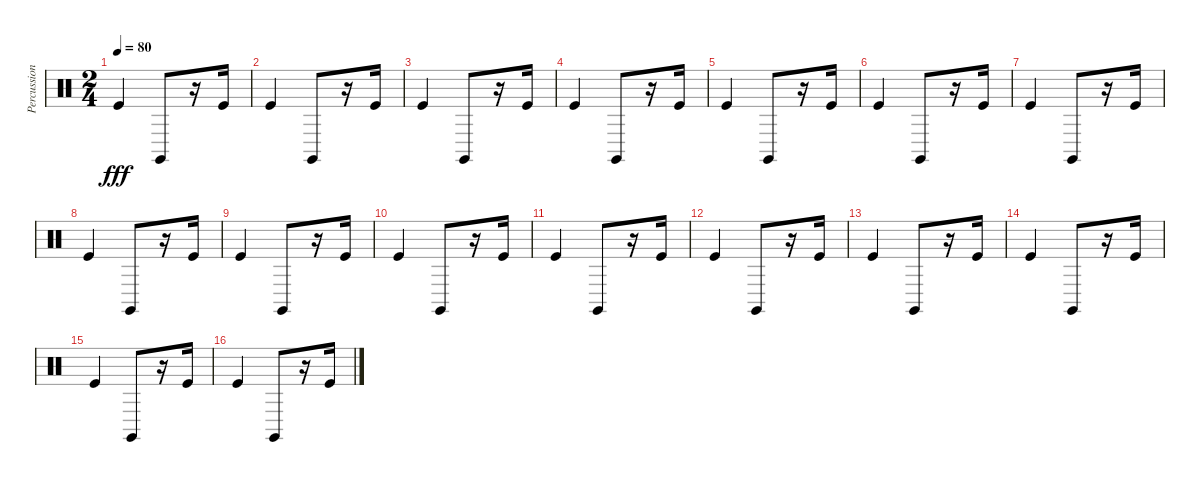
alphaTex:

\track ("Percussions" "Percussion") {instrument percussion}
\staff {score}
\articulation defaults
\ts (2 4)
\tempo 80
\clef neutral
\ks c "Kick (hit)".4{dy fff} "Claves (hit)".8
r.16 "Kick (hit)".16 |
"Kick (hit)".4 "Claves (hit)".8 r.16 "Kick (hit)".16 |
"Kick (hit)".4 "Claves (hit)".8 r.16 "Kick (hit)".16 |
"Kick (hit)".4 "Claves (hit)".8 r.16 "Kick (hit)".16 |
"Kick (hit)".4 "Claves (hit)".8 r.16 "Kick (hit)".16 |
"Kick (hit)".4 "Claves (hit)".8 r.16 "Kick (hit)".16 |
"Kick (hit)".4 "Claves (hit)".8 r.16 "Kick (hit)".16 |
"Kick (hit)".4 "Claves (hit)".8 r.16 "Kick (hit)".16 |
"Kick (hit)".4 "Claves (hit)".8 r.16 "Kick (hit)".16 |
"Kick (hit)".4 "Claves (hit)".8 r.16 "Kick (hit)".16 |
"Kick (hit)".4 "Claves (hit)".8 r.16 "Kick (hit)".16 |
"Kick (hit)".4 "Claves (hit)".8 r.16 "Kick (hit)".16 |
"Kick (hit)".4 "Claves (hit)".8 r.16 "Kick (hit)".16 |
"Kick (hit)".4 "Claves (hit)".8 r.16 "Kick (hit)".16 |
"Kick (hit)".4 "Claves (hit)".8 r.16 "Kick (hit)".16 |
"Kick (hit)".4 "Claves (hit)".8 r.16 "Kick (hit)".16
